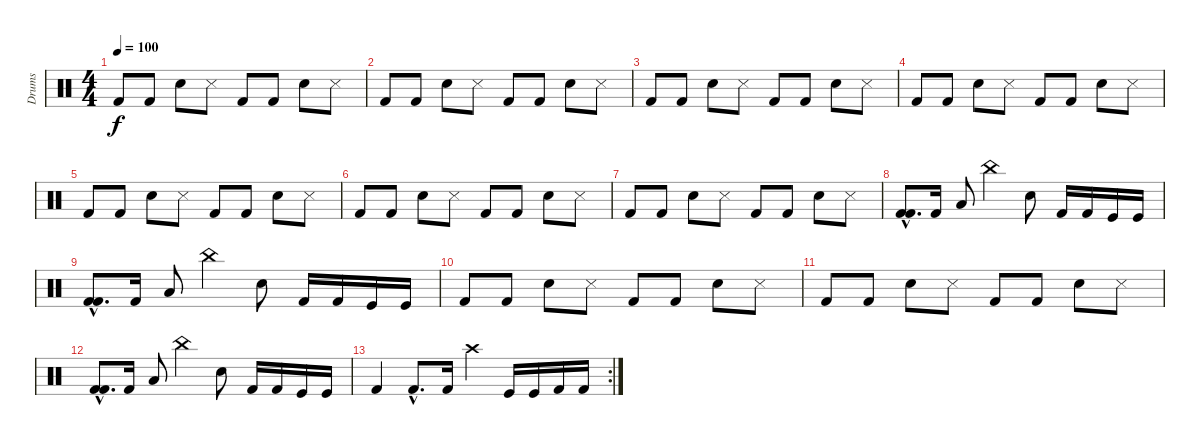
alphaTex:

\track ("Drums" "Drums") {instrument percussion}
\staff {score}
\articulation defaults
\ts (4 4)
\tempo 100
\clef neutral
\ks c "Kick (hit) 2".8{dy f} "Kick (hit) 2".8 "Snare (hit) 2".8 "Snare (side stick) 3".8 "Kick (hit) 2".8 "Kick (hit) 2".8 "Snare (hit) 2".8 "Snare (side stick) 3".8
|
"Kick (hit) 2".8 "Kick (hit) 2".8 "Snare (hit) 2".8 "Snare (side stick) 3".8 "Kick (hit) 2".8 "Kick (hit) 2".8 "Snare (hit) 2".8 "Snare (side stick) 3".8 |
"Kick (hit) 2".8 "Kick (hit) 2".8 "Snare (hit) 2".8 "Snare (side stick) 3".8 "Kick (hit) 2".8 "Kick (hit) 2".8 "Snare (hit) 2".8 "Snare (side stick) 3".8 |
"Kick (hit) 2".8 "Kick (hit) 2".8 "Snare (hit) 2".8 "Snare (side stick) 3".8 "Kick (hit) 2".8 "Kick (hit) 2".8 "Snare (hit) 2".8 "Snare (side stick) 3".8 |
"Kick (hit) 2".8 "Kick (hit) 2".8 "Snare (hit) 2".8 "Snare (side stick) 3".8 "Kick (hit) 2".8 "Kick (hit) 2".8 "Snare (hit) 2".8 "Snare (side stick) 3".8 |
"Kick (hit) 2".8 "Kick (hit) 2".8 "Snare (hit) 2".8 "Snare (side stick) 3".8 "Kick (hit) 2".8 "Kick (hit) 2".8 "Snare (hit) 2".8 "Snare (side stick) 3".8 |
"Kick (hit) 2".8 "Kick (hit) 2".8 "Snare (hit) 2".8 "Snare (side stick) 3".8 "Kick (hit) 2".8 "Kick (hit) 2".8 "Snare (hit) 2".8 "Snare (side stick) 3".8 |
("Kick (hit) 2"{hac} "Kick (hit) 2"{hac}).8{d} "Kick (hit) 2".16 "Low Tom (hit)".8 "China (hit)".4 "Snare (hit) 2".8 "Kick (hit) 2".16 "Kick (hit) 2".16 "Kick (hit)".16 "Kick (hit)".16 |
("Kick (hit) 2"{hac} "Kick (hit) 2"{hac}).8{d} "Kick (hit) 2".16 "Low Tom (hit)".8 "China (hit)".4 "Snare (hit) 2".8 "Kick (hit) 2".16 "Kick (hit) 2".16 "Kick (hit)".16 "Kick (hit)".16 |
"Kick (hit) 2".8 "Kick (hit) 2".8 "Snare (hit) 2".8 "Snare (side stick) 3".8 "Kick (hit) 2".8 "Kick (hit) 2".8 "Snare (hit) 2".8 "Snare (side stick) 3".8 |
"Kick (hit) 2".8 "Kick (hit) 2".8 "Snare (hit) 2".8 "Snare (side stick) 3".8 "Kick (hit) 2".8 "Kick (hit) 2".8 "Snare (hit) 2".8 "Snare (side stick) 3".8 |
("Kick (hit) 2"{hac} "Kick (hit) 2"{hac}).8{d} "Kick (hit) 2".16 "Low Tom (hit)".8 "China (hit)".4 "Snare (hit) 2".8 "Kick (hit) 2".16 "Kick (hit) 2".16 "Kick (hit)".16 "Kick (hit)".16 |
\rc 2 "Kick (hit) 2".4 "Kick (hit) 2"{hac}.8{d} "Kick (hit) 2".16 "Crash high (hit)".4 "Kick (hit)".16 "Kick (hit)".16 "Kick (hit) 2".16 "Kick (hit) 2".16
